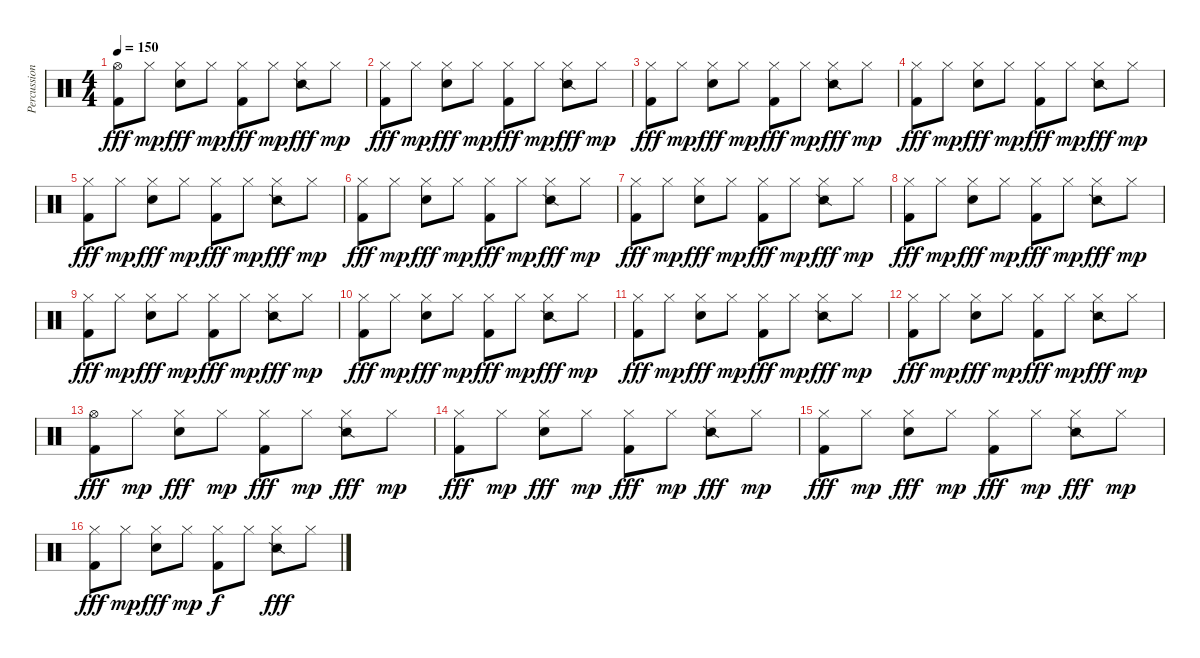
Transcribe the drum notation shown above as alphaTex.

\track ("Percussion" "Percussion") {instrument percussion}
\staff {score}
\articulation defaults
\ts (4 4)
\tempo 150
\clef neutral
\ks c
("Hi-Hat (open)" "Kick (hit) 2").8{dy fff} "Hi-Hat (closed)".8{dy mp} ("Hi-Hat (closed)" "Snare (hit) 2").8{dy fff} "Hi-Hat (closed)".8{dy mp} ("Hi-Hat (closed)" "Kick (hit) 2").8{dy fff} "Hi-Hat (closed)".8{dy mp} ("Hi-Hat (closed)" "Snare (side stick) 2").8{dy fff} "Hi-Hat (closed)".8{dy mp} |
("Hi-Hat (closed)" "Kick (hit) 2").8{dy fff} "Hi-Hat (closed)".8{dy mp} ("Hi-Hat (closed)" "Snare (hit) 2").8{dy fff} "Hi-Hat (closed)".8{dy mp} ("Hi-Hat (closed)" "Kick (hit) 2").8{dy fff} "Hi-Hat (closed)".8{dy mp} ("Hi-Hat (closed)" "Snare (side stick) 2").8{dy fff} "Hi-Hat (closed)".8{dy mp} |
("Hi-Hat (closed)" "Kick (hit) 2").8{dy fff} "Hi-Hat (closed)".8{dy mp} ("Hi-Hat (closed)" "Snare (hit) 2").8{dy fff} "Hi-Hat (closed)".8{dy mp} ("Hi-Hat (closed)" "Kick (hit) 2").8{dy fff} "Hi-Hat (closed)".8{dy mp} ("Hi-Hat (closed)" "Snare (side stick) 2").8{dy fff} "Hi-Hat (closed)".8{dy mp} |
("Hi-Hat (closed)" "Kick (hit) 2").8{dy fff} "Hi-Hat (closed)".8{dy mp} ("Hi-Hat (closed)" "Snare (hit) 2").8{dy fff} "Hi-Hat (closed)".8{dy mp} ("Hi-Hat (closed)" "Kick (hit) 2").8{dy fff} "Hi-Hat (closed)".8{dy mp} ("Hi-Hat (closed)" "Snare (side stick) 2").8{dy fff} "Hi-Hat (closed)".8{dy mp} |
("Hi-Hat (closed)" "Kick (hit) 2").8{dy fff} "Hi-Hat (closed)".8{dy mp} ("Hi-Hat (closed)" "Snare (hit) 2").8{dy fff} "Hi-Hat (closed)".8{dy mp} ("Hi-Hat (closed)" "Kick (hit) 2").8{dy fff} "Hi-Hat (closed)".8{dy mp} ("Hi-Hat (closed)" "Snare (side stick) 2").8{dy fff} "Hi-Hat (closed)".8{dy mp} |
("Hi-Hat (closed)" "Kick (hit) 2").8{dy fff} "Hi-Hat (closed)".8{dy mp} ("Hi-Hat (closed)" "Snare (hit) 2").8{dy fff} "Hi-Hat (closed)".8{dy mp} ("Hi-Hat (closed)" "Kick (hit) 2").8{dy fff} "Hi-Hat (closed)".8{dy mp} ("Hi-Hat (closed)" "Snare (side stick) 2").8{dy fff} "Hi-Hat (closed)".8{dy mp} |
("Hi-Hat (closed)" "Kick (hit) 2").8{dy fff} "Hi-Hat (closed)".8{dy mp} ("Hi-Hat (closed)" "Snare (hit) 2").8{dy fff} "Hi-Hat (closed)".8{dy mp} ("Hi-Hat (closed)" "Kick (hit) 2").8{dy fff} "Hi-Hat (closed)".8{dy mp} ("Hi-Hat (closed)" "Snare (side stick) 2").8{dy fff} "Hi-Hat (closed)".8{dy mp} |
("Hi-Hat (closed)" "Kick (hit) 2").8{dy fff} "Hi-Hat (closed)".8{dy mp} ("Hi-Hat (closed)" "Snare (hit) 2").8{dy fff} "Hi-Hat (closed)".8{dy mp} ("Hi-Hat (closed)" "Kick (hit) 2").8{dy fff} "Hi-Hat (closed)".8{dy mp} ("Hi-Hat (closed)" "Snare (side stick) 2").8{dy fff} "Hi-Hat (closed)".8{dy mp} |
("Hi-Hat (closed)" "Kick (hit) 2").8{dy fff} "Hi-Hat (closed)".8{dy mp} ("Hi-Hat (closed)" "Snare (hit) 2").8{dy fff} "Hi-Hat (closed)".8{dy mp} ("Hi-Hat (closed)" "Kick (hit) 2").8{dy fff} "Hi-Hat (closed)".8{dy mp} ("Hi-Hat (closed)" "Snare (side stick) 2").8{dy fff} "Hi-Hat (closed)".8{dy mp} |
("Hi-Hat (closed)" "Kick (hit) 2").8{dy fff} "Hi-Hat (closed)".8{dy mp} ("Hi-Hat (closed)" "Snare (hit) 2").8{dy fff} "Hi-Hat (closed)".8{dy mp} ("Hi-Hat (closed)" "Kick (hit) 2").8{dy fff} "Hi-Hat (closed)".8{dy mp} ("Hi-Hat (closed)" "Snare (side stick) 2").8{dy fff} "Hi-Hat (closed)".8{dy mp} |
("Hi-Hat (closed)" "Kick (hit) 2").8{dy fff} "Hi-Hat (closed)".8{dy mp} ("Hi-Hat (closed)" "Snare (hit) 2").8{dy fff} "Hi-Hat (closed)".8{dy mp} ("Hi-Hat (closed)" "Kick (hit) 2").8{dy fff} "Hi-Hat (closed)".8{dy mp} ("Hi-Hat (closed)" "Snare (side stick) 2").8{dy fff} "Hi-Hat (closed)".8{dy mp} |
("Hi-Hat (closed)" "Kick (hit) 2").8{dy fff} "Hi-Hat (closed)".8{dy mp} ("Hi-Hat (closed)" "Snare (hit) 2").8{dy fff} "Hi-Hat (closed)".8{dy mp} ("Hi-Hat (closed)" "Kick (hit) 2").8{dy fff} "Hi-Hat (closed)".8{dy mp} ("Hi-Hat (closed)" "Snare (side stick) 2").8{dy fff} "Hi-Hat (closed)".8{dy mp} |
("Hi-Hat (open)" "Kick (hit) 2").8{dy fff} "Hi-Hat (closed)".8{dy mp} ("Hi-Hat (closed)" "Snare (hit) 2").8{dy fff} "Hi-Hat (closed)".8{dy mp} ("Hi-Hat (closed)" "Kick (hit) 2").8{dy fff} "Hi-Hat (closed)".8{dy mp} ("Hi-Hat (closed)" "Snare (side stick) 2").8{dy fff} "Hi-Hat (closed)".8{dy mp} |
("Hi-Hat (closed)" "Kick (hit) 2").8{dy fff} "Hi-Hat (closed)".8{dy mp} ("Hi-Hat (closed)" "Snare (hit) 2").8{dy fff} "Hi-Hat (closed)".8{dy mp} ("Hi-Hat (closed)" "Kick (hit) 2").8{dy fff} "Hi-Hat (closed)".8{dy mp} ("Hi-Hat (closed)" "Snare (side stick) 2").8{dy fff} "Hi-Hat (closed)".8{dy mp} |
("Hi-Hat (closed)" "Kick (hit) 2").8{dy fff} "Hi-Hat (closed)".8{dy mp} ("Hi-Hat (closed)" "Snare (hit) 2").8{dy fff} "Hi-Hat (closed)".8{dy mp} ("Hi-Hat (closed)" "Kick (hit) 2").8{dy fff} "Hi-Hat (closed)".8{dy mp} ("Hi-Hat (closed)" "Snare (side stick) 2").8{dy fff} "Hi-Hat (closed)".8{dy mp} |
("Hi-Hat (closed)" "Kick (hit) 2").8{dy fff} "Hi-Hat (closed)".8{dy mp} ("Hi-Hat (closed)" "Snare (hit) 2").8{dy fff} "Hi-Hat (closed)".8{dy mp} ("Hi-Hat (closed)" "Kick (hit) 2").8{dy f} "Hi-Hat (closed)".8 ("Hi-Hat (closed)" "Snare (side stick) 2").8{dy fff} "Hi-Hat (closed)".8
